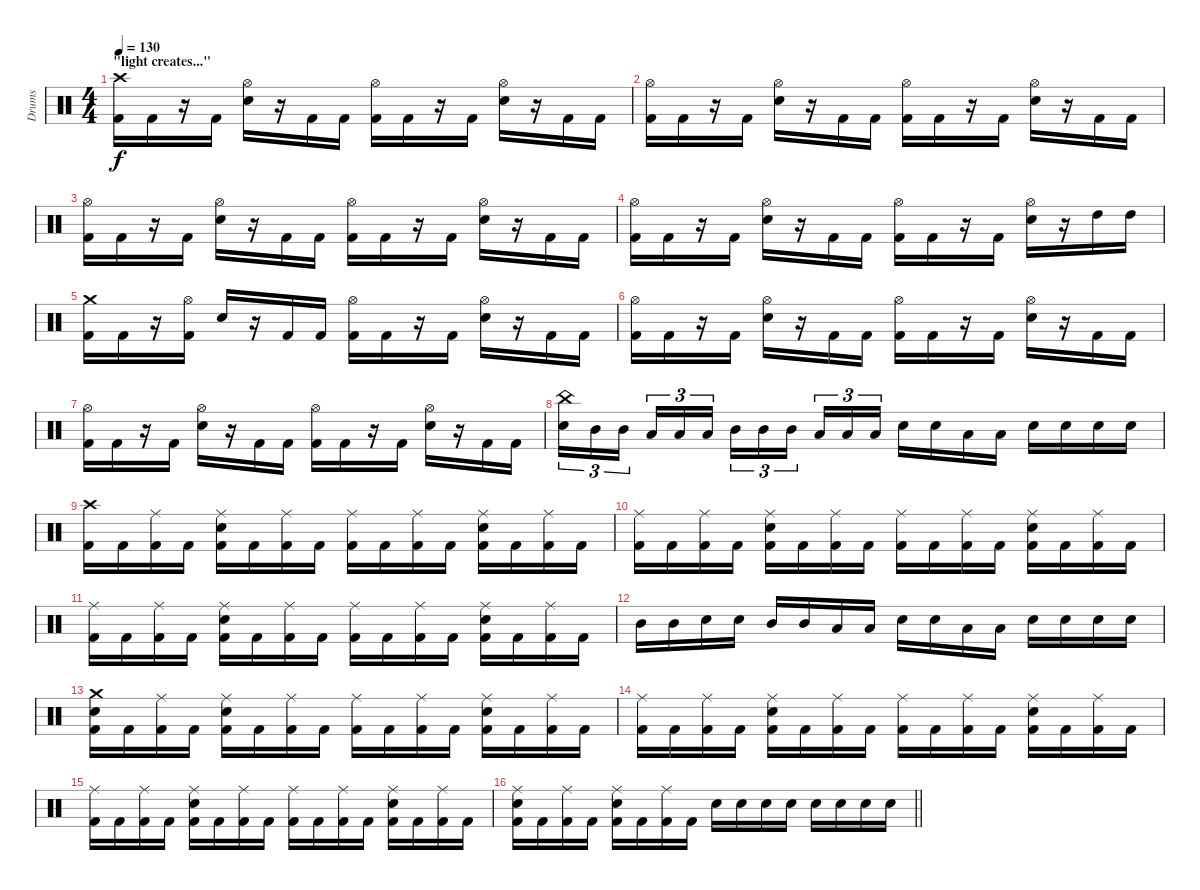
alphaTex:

\track ("Drums" "Drums") {instrument percussion}
\staff {score}
\articulation defaults
\ts (4 4)
\section ("" "\"light creates...\"")
\tempo 130
\clef neutral
\ks c
("Crash high (hit)" "Kick (hit) 2").16{dy f} "Kick (hit) 2".16 r.16 "Kick (hit) 2".16 ("Hi-Hat (open)" "Snare (hit) 2").16 r.16 "Kick (hit) 2".16 "Kick (hit) 2".16 ("Hi-Hat (open)" "Kick (hit) 2").16 "Kick (hit) 2".16 r.16 "Kick (hit) 2".16 ("Hi-Hat (open)" "Snare (hit) 2").16 r.16 "Kick (hit) 2".16 "Kick (hit) 2".16 |
("Hi-Hat (open)" "Kick (hit) 2").16 "Kick (hit) 2".16 r.16 "Kick (hit) 2".16 ("Hi-Hat (open)" "Snare (hit) 2").16 r.16 "Kick (hit) 2".16 "Kick (hit) 2".16 ("Hi-Hat (open)" "Kick (hit) 2").16 "Kick (hit) 2".16 r.16 "Kick (hit) 2".16 ("Hi-Hat (open)" "Snare (hit) 2").16 r.16 "Kick (hit) 2".16 "Kick (hit) 2".16 |
("Hi-Hat (open)" "Kick (hit) 2").16 "Kick (hit) 2".16 r.16 "Kick (hit) 2".16 ("Hi-Hat (open)" "Snare (hit) 2").16 r.16 "Kick (hit) 2".16 "Kick (hit) 2".16 ("Hi-Hat (open)" "Kick (hit) 2").16 "Kick (hit) 2".16 r.16 "Kick (hit) 2".16 ("Hi-Hat (open)" "Snare (hit) 2").16 r.16 "Kick (hit) 2".16 "Kick (hit) 2".16 |
("Hi-Hat (open)" "Kick (hit) 2").16 "Kick (hit) 2".16 r.16 "Kick (hit) 2".16 ("Hi-Hat (open)" "Snare (hit) 2").16 r.16 "Kick (hit) 2".16 "Kick (hit) 2".16 ("Hi-Hat (open)" "Kick (hit) 2").16 "Kick (hit) 2".16 r.16 "Kick (hit) 2".16 ("Hi-Hat (open)" "Snare (hit) 2").16 r.16 "High Tom (hit)".16 "High Tom (hit)".16 |
("Crash medium (hit)" "Kick (hit) 2").16 "Kick (hit) 2".16 r.16 ("Hi-Hat (open)" "Kick (hit) 2").16 "Snare (hit) 2".16 r.16 "Kick (hit) 2".16 "Kick (hit) 2".16 ("Hi-Hat (open)" "Kick (hit) 2").16 "Kick (hit) 2".16 r.16 "Kick (hit) 2".16 ("Hi-Hat (open)" "Snare (hit) 2").16 r.16 "Kick (hit) 2".16 "Kick (hit) 2".16 |
("Hi-Hat (open)" "Kick (hit) 2").16 "Kick (hit) 2".16 r.16 "Kick (hit) 2".16 ("Hi-Hat (open)" "Snare (hit) 2").16 r.16 "Kick (hit) 2".16 "Kick (hit) 2".16 ("Hi-Hat (open)" "Kick (hit) 2").16 "Kick (hit) 2".16 r.16 "Kick (hit) 2".16 ("Hi-Hat (open)" "Snare (hit) 2").16 r.16 "Kick (hit) 2".16 "Kick (hit) 2".16 |
("Hi-Hat (open)" "Kick (hit) 2").16 "Kick (hit) 2".16 r.16 "Kick (hit) 2".16 ("Hi-Hat (open)" "Snare (hit) 2").16 r.16 "Kick (hit) 2".16 "Kick (hit) 2".16 ("Hi-Hat (open)" "Kick (hit) 2").16 "Kick (hit) 2".16 r.16 "Kick (hit) 2".16 ("Hi-Hat (open)" "Snare (hit) 2").16 r.16 "Kick (hit) 2".16 "Kick (hit) 2".16 |
("China (hit)" "Snare (hit) 2").16{tu (3 2)} "Mid Tom (hit)".16{tu (3 2)} "Mid Tom (hit)".16{tu (3 2)} "Low Tom (hit)".16{tu (3 2)} "Low Tom (hit)".16{tu (3 2)} "Low Tom (hit)".16{tu (3 2)} "Mid Tom (hit)".16{tu (3 2)} "Mid Tom (hit)".16{tu (3 2)} "Mid Tom (hit)".16{tu (3 2)} "Low Tom (hit)".16{tu (3 2)} "Low Tom (hit)".16{tu (3 2)} "Low Tom (hit)".16{tu (3 2)} "Snare (hit) 2".16 "Snare (hit) 2".16 "Low Tom (hit)".16 "Low Tom (hit)".16 "Snare (hit) 2".16 "Snare (hit) 2".16 "Snare (hit) 2".16 "Snare (hit) 2".16 |
("Crash high (hit)" "Kick (hit) 2").16 "Kick (hit) 2".16 ("Ride (middle)" "Kick (hit) 2").16 "Kick (hit) 2".16 ("Ride (middle)" "Snare (hit) 2" "Kick (hit) 2").16 "Kick (hit) 2".16 ("Ride (middle)" "Kick (hit) 2").16 "Kick (hit) 2".16 ("Ride (middle)" "Kick (hit) 2").16 "Kick (hit) 2".16 ("Ride (middle)" "Kick (hit) 2").16 "Kick (hit) 2".16 ("Ride (middle)" "Snare (hit) 2" "Kick (hit) 2").16 "Kick (hit) 2".16 ("Ride (middle)" "Kick (hit) 2").16 "Kick (hit) 2".16 |
("Ride (middle)" "Kick (hit) 2").16 "Kick (hit) 2".16 ("Ride (middle)" "Kick (hit) 2").16 "Kick (hit) 2".16 ("Ride (middle)" "Snare (hit) 2" "Kick (hit) 2").16 "Kick (hit) 2".16 ("Ride (middle)" "Kick (hit) 2").16 "Kick (hit) 2".16 ("Ride (middle)" "Kick (hit) 2").16 "Kick (hit) 2".16 ("Ride (middle)" "Kick (hit) 2").16 "Kick (hit) 2".16 ("Ride (middle)" "Snare (hit) 2" "Kick (hit) 2").16 "Kick (hit) 2".16 ("Ride (middle)" "Kick (hit) 2").16 "Kick (hit) 2".16 |
("Ride (middle)" "Kick (hit) 2").16 "Kick (hit) 2".16 ("Ride (middle)" "Kick (hit) 2").16 "Kick (hit) 2".16 ("Ride (middle)" "Snare (hit) 2" "Kick (hit) 2").16 "Kick (hit) 2".16 ("Ride (middle)" "Kick (hit) 2").16 "Kick (hit) 2".16 ("Ride (middle)" "Kick (hit) 2").16 "Kick (hit) 2".16 ("Ride (middle)" "Kick (hit) 2").16 "Kick (hit) 2".16 ("Ride (middle)" "Snare (hit) 2" "Kick (hit) 2").16 "Kick (hit) 2".16 ("Ride (middle)" "Kick (hit) 2").16 "Kick (hit) 2".16 |
"Mid Tom (hit)".16 "Mid Tom (hit)".16 "Snare (hit) 2".16 "Snare (hit) 2".16 "Mid Tom (hit)".16 "Mid Tom (hit)".16 "Low Tom (hit)".16 "Low Tom (hit)".16 "Snare (hit) 2".16 "Snare (hit) 2".16 "Low Tom (hit)".16 "Low Tom (hit)".16 "Snare (hit) 2".16 "Snare (hit) 2".16 "Snare (hit) 2".16 "Snare (hit) 2".16 |
("Crash medium (hit)" "Snare (hit) 2" "Kick (hit) 2").16 "Kick (hit) 2".16 ("Ride (middle)" "Kick (hit) 2").16 "Kick (hit) 2".16 ("Ride (middle)" "Snare (hit) 2" "Kick (hit) 2").16 "Kick (hit) 2".16 ("Ride (middle)" "Kick (hit) 2").16 "Kick (hit) 2".16 ("Ride (middle)" "Kick (hit) 2").16 "Kick (hit) 2".16 ("Ride (middle)" "Kick (hit) 2").16 "Kick (hit) 2".16 ("Ride (middle)" "Snare (hit) 2" "Kick (hit) 2").16 "Kick (hit) 2".16 ("Ride (middle)" "Kick (hit) 2").16 "Kick (hit) 2".16 |
("Ride (middle)" "Kick (hit) 2").16 "Kick (hit) 2".16 ("Ride (middle)" "Kick (hit) 2").16 "Kick (hit) 2".16 ("Ride (middle)" "Snare (hit) 2" "Kick (hit) 2").16 "Kick (hit) 2".16 ("Ride (middle)" "Kick (hit) 2").16 "Kick (hit) 2".16 ("Ride (middle)" "Kick (hit) 2").16 "Kick (hit) 2".16 ("Ride (middle)" "Kick (hit) 2").16 "Kick (hit) 2".16 ("Ride (middle)" "Snare (hit) 2" "Kick (hit) 2").16 "Kick (hit) 2".16 ("Ride (middle)" "Kick (hit) 2").16 "Kick (hit) 2".16 |
("Ride (middle)" "Kick (hit) 2").16 "Kick (hit) 2".16 ("Ride (middle)" "Kick (hit) 2").16 "Kick (hit) 2".16 ("Ride (middle)" "Snare (hit) 2" "Kick (hit) 2").16 "Kick (hit) 2".16 ("Ride (middle)" "Kick (hit) 2").16 "Kick (hit) 2".16 ("Ride (middle)" "Kick (hit) 2").16 "Kick (hit) 2".16 ("Ride (middle)" "Kick (hit) 2").16 "Kick (hit) 2".16 ("Ride (middle)" "Snare (hit) 2" "Kick (hit) 2").16 "Kick (hit) 2".16 ("Ride (middle)" "Kick (hit) 2").16 "Kick (hit) 2".16 |
\barLineRight lightlight
("Ride (middle)" "Snare (hit) 2" "Kick (hit) 2").16 "Kick (hit) 2".16 ("Ride (middle)" "Kick (hit) 2").16 "Kick (hit) 2".16 ("Ride (middle)" "Snare (hit) 2" "Kick (hit) 2").16 "Kick (hit) 2".16 ("Ride (middle)" "Kick (hit) 2").16 "Kick (hit) 2".16 "Snare (hit) 2".16 "Snare (hit) 2".16 "Snare (hit) 2".16 "Snare (hit) 2".16 "Snare (hit) 2".16 "Snare (hit) 2".16 "Snare (hit) 2".16 "Snare (hit) 2".16
